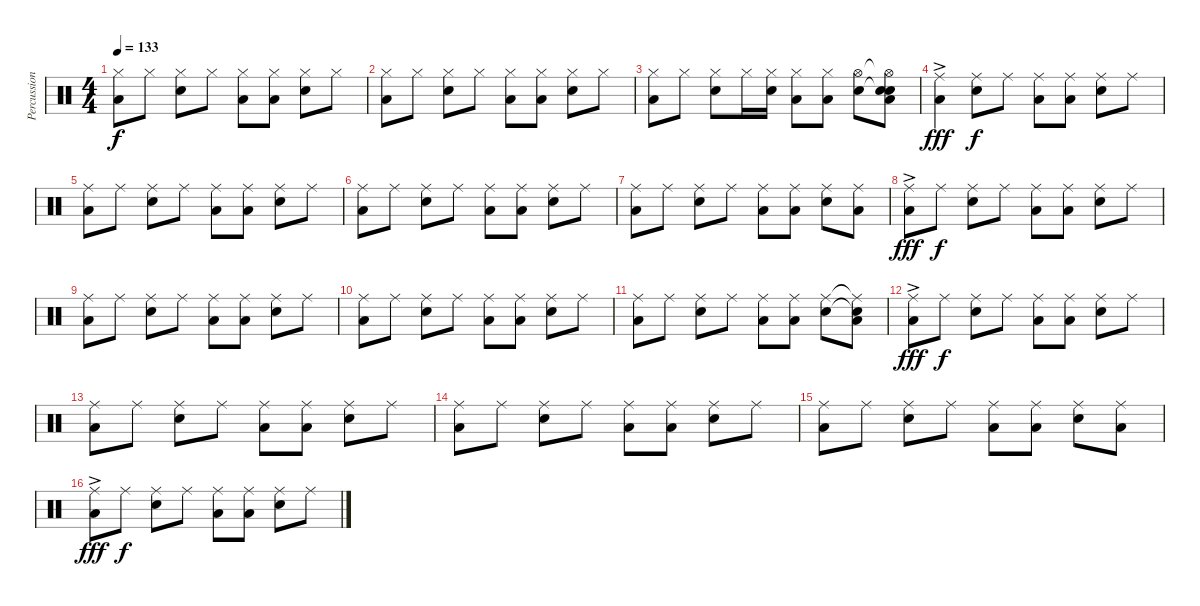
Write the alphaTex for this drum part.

\track ("Percussion" "Percussion") {instrument percussion}
\staff {score}
\articulation defaults
\ts (4 4)
\tempo 133
\clef neutral
\ks c
("Hi-Hat (closed)" "Low Floor Tom (hit)").8{dy f} "Hi-Hat (closed)".8 ("Hi-Hat (closed)" "Snare (hit) 2").8 "Hi-Hat (closed)".8 ("Hi-Hat (closed)" "Low Floor Tom (hit)").8 ("Hi-Hat (closed)" "Low Floor Tom (hit)").8 ("Hi-Hat (closed)" "Snare (hit) 2").8 "Hi-Hat (closed)".8 |
("Hi-Hat (closed)" "Low Floor Tom (hit)").8 "Hi-Hat (closed)".8 ("Hi-Hat (closed)" "Snare (hit) 2").8 "Hi-Hat (closed)".8 ("Hi-Hat (closed)" "Low Floor Tom (hit)").8 ("Hi-Hat (closed)" "Low Floor Tom (hit)").8 ("Hi-Hat (closed)" "Snare (hit) 2").8 "Hi-Hat (closed)".8 |
("Hi-Hat (closed)" "Low Floor Tom (hit)").8 "Hi-Hat (closed)".8 ("Hi-Hat (closed)" "Snare (hit) 2").8 "Hi-Hat (closed)".16 ("Hi-Hat (closed)" "Snare (hit) 2").16 ("Hi-Hat (closed)" "Low Floor Tom (hit)").8 ("Hi-Hat (closed)" "Low Floor Tom (hit)").8 ("Hi-Hat (open)" "Snare (hit) 2").8 ("Hi-Hat (open)"{t} "Snare (hit)"{t} "Snare (hit) 2" "Low Floor Tom (hit)").8 |
("Ride (middle)"{ac} "Low Floor Tom (hit)").4{dy fff} ("Ride (middle)" "Snare (hit) 2").8{dy f} "Ride (middle)".8 ("Ride (middle)" "Low Floor Tom (hit)").8 ("Ride (middle)" "Low Floor Tom (hit)").8 ("Ride (middle)" "Snare (hit) 2").8 "Ride (middle)".8 |
("Ride (middle)" "Low Floor Tom (hit)").8 "Ride (middle)".8 ("Ride (middle)" "Snare (hit) 2").8 "Ride (middle)".8 ("Ride (middle)" "Low Floor Tom (hit)").8 ("Ride (middle)" "Low Floor Tom (hit)").8 ("Ride (middle)" "Snare (hit) 2").8 "Ride (middle)".8 |
("Ride (middle)" "Low Floor Tom (hit)").8 "Ride (middle)".8 ("Ride (middle)" "Snare (hit) 2").8 "Ride (middle)".8 ("Ride (middle)" "Low Floor Tom (hit)").8 ("Ride (middle)" "Low Floor Tom (hit)").8 ("Ride (middle)" "Snare (hit) 2").8 "Ride (middle)".8 |
("Ride (middle)" "Low Floor Tom (hit)").8 "Ride (middle)".8 ("Ride (middle)" "Snare (hit) 2").8 "Ride (middle)".8 ("Ride (middle)" "Low Floor Tom (hit)").8 ("Ride (middle)" "Low Floor Tom (hit)").8 ("Ride (middle)" "Snare (hit) 2").8 ("Ride (middle)" "Low Floor Tom (hit)").8 |
("Ride (middle)"{ac} "Low Floor Tom (hit)").8{dy fff} "Ride (middle)".8{dy f} ("Ride (middle)" "Snare (hit) 2").8 "Ride (middle)".8 ("Ride (middle)" "Low Floor Tom (hit)").8 ("Ride (middle)" "Low Floor Tom (hit)").8 ("Ride (middle)" "Snare (hit) 2").8 "Ride (middle)".8 |
("Ride (middle)" "Low Floor Tom (hit)").8 "Ride (middle)".8 ("Ride (middle)" "Snare (hit) 2").8 "Ride (middle)".8 ("Ride (middle)" "Low Floor Tom (hit)").8 ("Ride (middle)" "Low Floor Tom (hit)").8 ("Ride (middle)" "Snare (hit) 2").8 "Ride (middle)".8 |
("Ride (middle)" "Low Floor Tom (hit)").8 "Ride (middle)".8 ("Ride (middle)" "Snare (hit) 2").8 "Ride (middle)".8 ("Ride (middle)" "Low Floor Tom (hit)").8 ("Ride (middle)" "Low Floor Tom (hit)").8 ("Ride (middle)" "Snare (hit) 2").8 "Ride (middle)".8 |
("Ride (middle)" "Low Floor Tom (hit)").8 "Ride (middle)".8 ("Ride (middle)" "Snare (hit) 2").8 "Ride (middle)".8 ("Ride (middle)" "Low Floor Tom (hit)").8 ("Ride (middle)" "Low Floor Tom (hit)").8 ("Ride (middle)" "Snare (hit) 2").8 ("Ride (middle)"{t} "Snare (hit) 2"{t} "Low Floor Tom (hit)").8 |
("Ride (middle)"{ac} "Low Floor Tom (hit)").8{dy fff} "Ride (middle)".8{dy f} ("Ride (middle)" "Snare (hit) 2").8 "Ride (middle)".8 ("Ride (middle)" "Low Floor Tom (hit)").8 ("Ride (middle)" "Low Floor Tom (hit)").8 ("Ride (middle)" "Snare (hit) 2").8 "Ride (middle)".8 |
("Ride (middle)" "Low Floor Tom (hit)").8 "Ride (middle)".8 ("Ride (middle)" "Snare (hit) 2").8 "Ride (middle)".8 ("Ride (middle)" "Low Floor Tom (hit)").8 ("Ride (middle)" "Low Floor Tom (hit)").8 ("Ride (middle)" "Snare (hit) 2").8 "Ride (middle)".8 |
("Ride (middle)" "Low Floor Tom (hit)").8 "Ride (middle)".8 ("Ride (middle)" "Snare (hit) 2").8 "Ride (middle)".8 ("Ride (middle)" "Low Floor Tom (hit)").8 ("Ride (middle)" "Low Floor Tom (hit)").8 ("Ride (middle)" "Snare (hit) 2").8 "Ride (middle)".8 |
("Ride (middle)" "Low Floor Tom (hit)").8 "Ride (middle)".8 ("Ride (middle)" "Snare (hit) 2").8 "Ride (middle)".8 ("Ride (middle)" "Low Floor Tom (hit)").8 ("Ride (middle)" "Low Floor Tom (hit)").8 ("Ride (middle)" "Snare (hit) 2").8 ("Ride (middle)" "Low Floor Tom (hit)").8 |
("Ride (middle)"{ac} "Low Floor Tom (hit)").8{dy fff} "Ride (middle)".8{dy f} ("Ride (middle)" "Snare (hit) 2").8 "Ride (middle)".8 ("Ride (middle)" "Low Floor Tom (hit)").8 ("Ride (middle)" "Low Floor Tom (hit)").8 ("Ride (middle)" "Snare (hit) 2").8 "Ride (middle)".8
